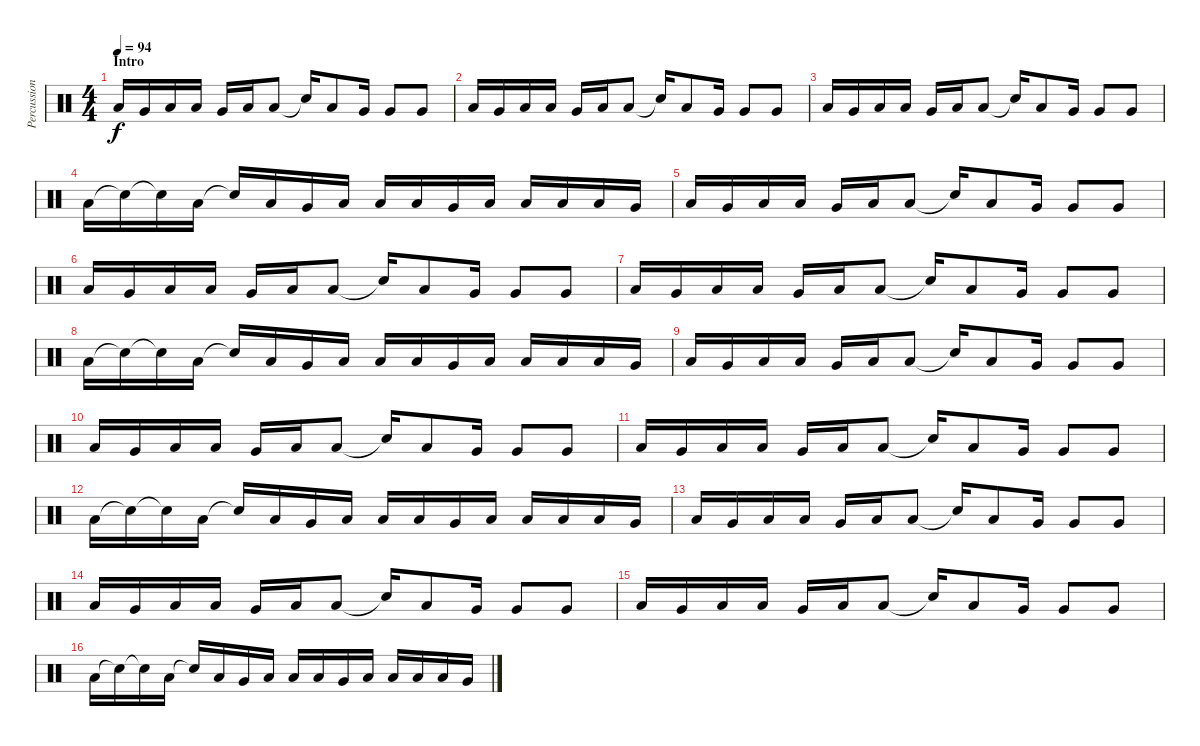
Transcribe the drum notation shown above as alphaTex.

\track ("Percussion" "Percussion") {instrument percussion}
\staff {score}
\articulation defaults
\ts (4 4)
\section ("" "Intro")
\tempo 94
\clef neutral
\ks c "Low Floor Tom (hit)".16{dy f} "Very Low Tom (hit)".16 "Low Floor Tom (hit)".16 "Low Floor Tom (hit)".16 "Very Low Tom (hit)".16 "Low Floor Tom (hit)".16 "Low Floor Tom (hit)".8 "Snare (hit)"{t}.16 "Low Floor Tom (hit)".8 "Very Low Tom (hit)".16 "Very Low Tom (hit)".8 "Very Low Tom (hit)".8
|
"Low Floor Tom (hit)".16 "Very Low Tom (hit)".16 "Low Floor Tom (hit)".16 "Low Floor Tom (hit)".16 "Very Low Tom (hit)".16 "Low Floor Tom (hit)".16 "Low Floor Tom (hit)".8 "Snare (hit)"{t}.16 "Low Floor Tom (hit)".8 "Very Low Tom (hit)".16 "Very Low Tom (hit)".8 "Very Low Tom (hit)".8 |
"Low Floor Tom (hit)".16 "Very Low Tom (hit)".16 "Low Floor Tom (hit)".16 "Low Floor Tom (hit)".16 "Very Low Tom (hit)".16 "Low Floor Tom (hit)".16 "Low Floor Tom (hit)".8 "Snare (hit)"{t}.16 "Low Floor Tom (hit)".8 "Very Low Tom (hit)".16 "Very Low Tom (hit)".8 "Very Low Tom (hit)".8 |
"Low Floor Tom (hit)".16 "Snare (hit)"{t}.16 "Snare (hit)"{t}.16 "Low Floor Tom (hit)".16 "Snare (hit)"{t}.16 "Low Floor Tom (hit)".16 "Very Low Tom (hit)".16 "Low Floor Tom (hit)".16 "Low Floor Tom (hit)".16 "Low Tom (hit)".16 "Very Low Tom (hit)".16 "Low Floor Tom (hit)".16 "Low Tom (hit)".16 "Low Floor Tom (hit)".16 "Low Tom (hit)".16 "Very Low Tom (hit)".16 |
"Low Floor Tom (hit)".16 "Very Low Tom (hit)".16 "Low Floor Tom (hit)".16 "Low Floor Tom (hit)".16 "Very Low Tom (hit)".16 "Low Floor Tom (hit)".16 "Low Floor Tom (hit)".8 "Snare (hit)"{t}.16 "Low Floor Tom (hit)".8 "Very Low Tom (hit)".16 "Very Low Tom (hit)".8 "Very Low Tom (hit)".8 |
"Low Floor Tom (hit)".16 "Very Low Tom (hit)".16 "Low Floor Tom (hit)".16 "Low Floor Tom (hit)".16 "Very Low Tom (hit)".16 "Low Floor Tom (hit)".16 "Low Floor Tom (hit)".8 "Snare (hit)"{t}.16 "Low Floor Tom (hit)".8 "Very Low Tom (hit)".16 "Very Low Tom (hit)".8 "Very Low Tom (hit)".8 |
"Low Floor Tom (hit)".16 "Very Low Tom (hit)".16 "Low Floor Tom (hit)".16 "Low Floor Tom (hit)".16 "Very Low Tom (hit)".16 "Low Floor Tom (hit)".16 "Low Floor Tom (hit)".8 "Snare (hit)"{t}.16 "Low Floor Tom (hit)".8 "Very Low Tom (hit)".16 "Very Low Tom (hit)".8 "Very Low Tom (hit)".8 |
"Low Floor Tom (hit)".16 "Snare (hit)"{t}.16 "Snare (hit)"{t}.16 "Low Floor Tom (hit)".16 "Snare (hit)"{t}.16 "Low Floor Tom (hit)".16 "Very Low Tom (hit)".16 "Low Floor Tom (hit)".16 "Low Floor Tom (hit)".16 "Low Tom (hit)".16 "Very Low Tom (hit)".16 "Low Floor Tom (hit)".16 "Low Tom (hit)".16 "Low Floor Tom (hit)".16 "Low Tom (hit)".16 "Very Low Tom (hit)".16 |
"Low Floor Tom (hit)".16 "Very Low Tom (hit)".16 "Low Floor Tom (hit)".16 "Low Floor Tom (hit)".16 "Very Low Tom (hit)".16 "Low Floor Tom (hit)".16 "Low Floor Tom (hit)".8 "Snare (hit)"{t}.16 "Low Floor Tom (hit)".8 "Very Low Tom (hit)".16 "Very Low Tom (hit)".8 "Very Low Tom (hit)".8 |
"Low Floor Tom (hit)".16 "Very Low Tom (hit)".16 "Low Floor Tom (hit)".16 "Low Floor Tom (hit)".16 "Very Low Tom (hit)".16 "Low Floor Tom (hit)".16 "Low Floor Tom (hit)".8 "Snare (hit)"{t}.16 "Low Floor Tom (hit)".8 "Very Low Tom (hit)".16 "Very Low Tom (hit)".8 "Very Low Tom (hit)".8 |
"Low Floor Tom (hit)".16 "Very Low Tom (hit)".16 "Low Floor Tom (hit)".16 "Low Floor Tom (hit)".16 "Very Low Tom (hit)".16 "Low Floor Tom (hit)".16 "Low Floor Tom (hit)".8 "Snare (hit)"{t}.16 "Low Floor Tom (hit)".8 "Very Low Tom (hit)".16 "Very Low Tom (hit)".8 "Very Low Tom (hit)".8 |
"Low Floor Tom (hit)".16 "Snare (hit)"{t}.16 "Snare (hit)"{t}.16 "Low Floor Tom (hit)".16 "Snare (hit)"{t}.16 "Low Floor Tom (hit)".16 "Very Low Tom (hit)".16 "Low Floor Tom (hit)".16 "Low Floor Tom (hit)".16 "Low Tom (hit)".16 "Very Low Tom (hit)".16 "Low Floor Tom (hit)".16 "Low Tom (hit)".16 "Low Floor Tom (hit)".16 "Low Tom (hit)".16 "Very Low Tom (hit)".16 |
"Low Floor Tom (hit)".16 "Very Low Tom (hit)".16 "Low Floor Tom (hit)".16 "Low Floor Tom (hit)".16 "Very Low Tom (hit)".16 "Low Floor Tom (hit)".16 "Low Floor Tom (hit)".8 "Snare (hit)"{t}.16 "Low Floor Tom (hit)".8 "Very Low Tom (hit)".16 "Very Low Tom (hit)".8 "Very Low Tom (hit)".8 |
"Low Floor Tom (hit)".16 "Very Low Tom (hit)".16 "Low Floor Tom (hit)".16 "Low Floor Tom (hit)".16 "Very Low Tom (hit)".16 "Low Floor Tom (hit)".16 "Low Floor Tom (hit)".8 "Snare (hit)"{t}.16 "Low Floor Tom (hit)".8 "Very Low Tom (hit)".16 "Very Low Tom (hit)".8 "Very Low Tom (hit)".8 |
"Low Floor Tom (hit)".16 "Very Low Tom (hit)".16 "Low Floor Tom (hit)".16 "Low Floor Tom (hit)".16 "Very Low Tom (hit)".16 "Low Floor Tom (hit)".16 "Low Floor Tom (hit)".8 "Snare (hit)"{t}.16 "Low Floor Tom (hit)".8 "Very Low Tom (hit)".16 "Very Low Tom (hit)".8 "Very Low Tom (hit)".8 |
"Low Floor Tom (hit)".16 "Snare (hit)"{t}.16 "Snare (hit)"{t}.16 "Low Floor Tom (hit)".16 "Snare (hit)"{t}.16 "Low Floor Tom (hit)".16 "Very Low Tom (hit)".16 "Low Floor Tom (hit)".16 "Low Floor Tom (hit)".16 "Low Tom (hit)".16 "Very Low Tom (hit)".16 "Low Floor Tom (hit)".16 "Low Tom (hit)".16 "Low Floor Tom (hit)".16 "Low Tom (hit)".16 "Very Low Tom (hit)".16
